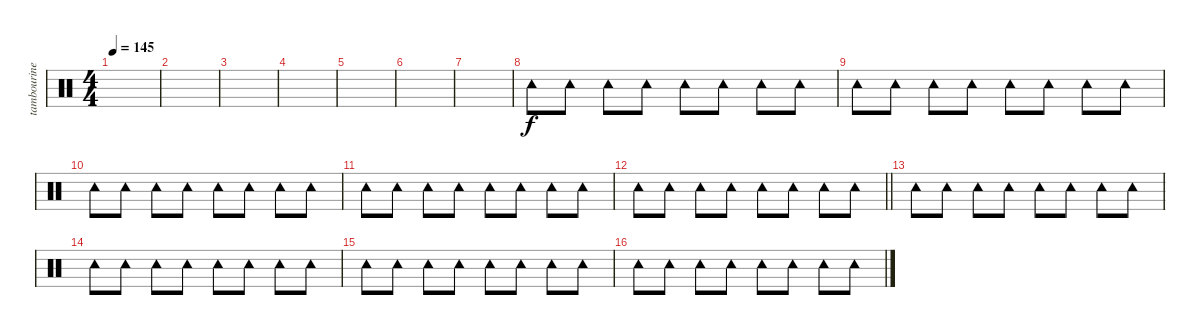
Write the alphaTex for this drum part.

\track ("tambourine" "tambourine") {instrument percussion}
\staff {score}
\articulation defaults
\ts (4 4)
\tempo 145
\clef neutral
\ks c
|
|
|
|
|
|
|
"Tambourine (hit)".8 "Tambourine (hit)".8 "Tambourine (hit)".8 "Tambourine (hit)".8 "Tambourine (hit)".8 "Tambourine (hit)".8 "Tambourine (hit)".8 "Tambourine (hit)".8 |
"Tambourine (hit)".8 "Tambourine (hit)".8 "Tambourine (hit)".8 "Tambourine (hit)".8 "Tambourine (hit)".8 "Tambourine (hit)".8 "Tambourine (hit)".8 "Tambourine (hit)".8 |
"Tambourine (hit)".8 "Tambourine (hit)".8 "Tambourine (hit)".8 "Tambourine (hit)".8 "Tambourine (hit)".8 "Tambourine (hit)".8 "Tambourine (hit)".8 "Tambourine (hit)".8 |
"Tambourine (hit)".8 "Tambourine (hit)".8 "Tambourine (hit)".8 "Tambourine (hit)".8 "Tambourine (hit)".8 "Tambourine (hit)".8 "Tambourine (hit)".8 "Tambourine (hit)".8 |
\barLineRight lightlight "Tambourine (hit)".8 "Tambourine (hit)".8 "Tambourine (hit)".8 "Tambourine (hit)".8 "Tambourine (hit)".8 "Tambourine (hit)".8 "Tambourine (hit)".8 "Tambourine (hit)".8
|
\section ("" "")
"Tambourine (hit)".8 "Tambourine (hit)".8 "Tambourine (hit)".8 "Tambourine (hit)".8 "Tambourine (hit)".8 "Tambourine (hit)".8 "Tambourine (hit)".8 "Tambourine (hit)".8 |
"Tambourine (hit)".8 "Tambourine (hit)".8 "Tambourine (hit)".8 "Tambourine (hit)".8 "Tambourine (hit)".8 "Tambourine (hit)".8 "Tambourine (hit)".8 "Tambourine (hit)".8 |
"Tambourine (hit)".8 "Tambourine (hit)".8 "Tambourine (hit)".8 "Tambourine (hit)".8 "Tambourine (hit)".8 "Tambourine (hit)".8 "Tambourine (hit)".8 "Tambourine (hit)".8 |
"Tambourine (hit)".8 "Tambourine (hit)".8 "Tambourine (hit)".8 "Tambourine (hit)".8 "Tambourine (hit)".8 "Tambourine (hit)".8 "Tambourine (hit)".8 "Tambourine (hit)".8
